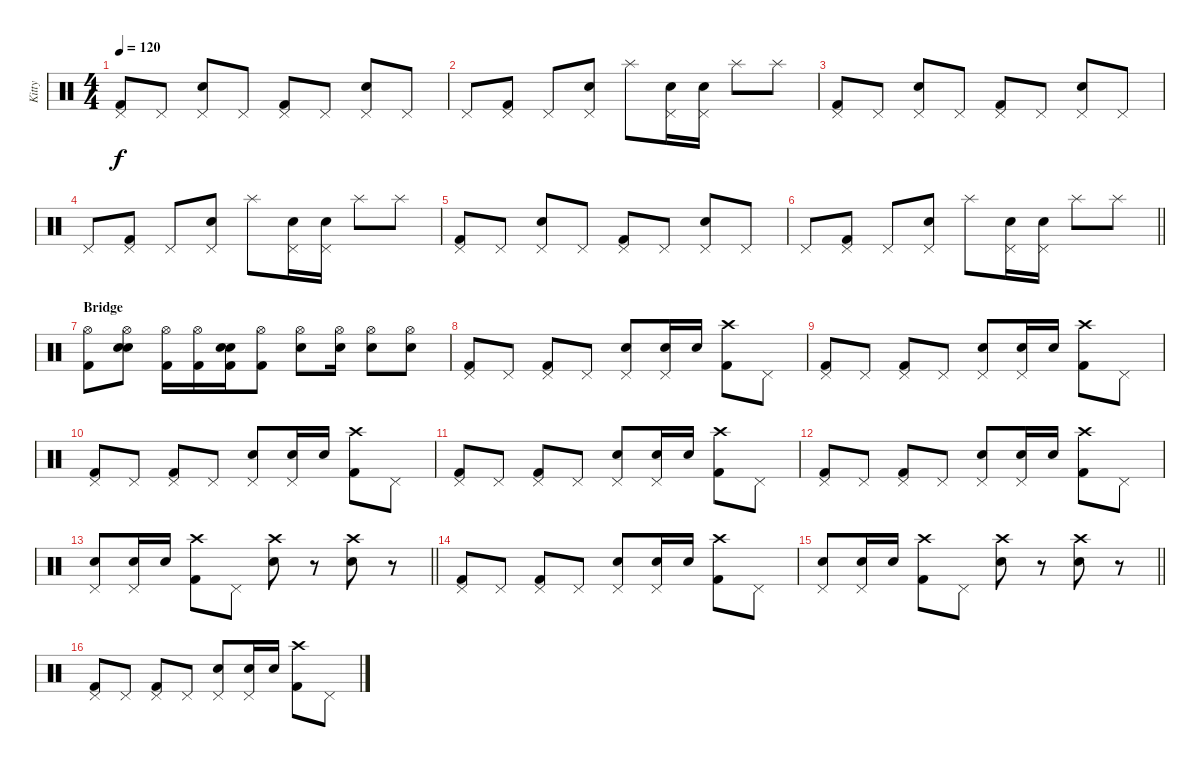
\track ("Kitty" "Kitty") {instrument percussion}
\staff {score}
\articulation defaults
\ts (4 4)
\tempo 120
\clef neutral
\ks c
("Pedal Hi-Hat (hit)" "Kick (hit) 2").8{dy f} "Pedal Hi-Hat (hit)".8 ("Pedal Hi-Hat (hit)" "Electric Snare (hit)").8 "Pedal Hi-Hat (hit)".8 ("Pedal Hi-Hat (hit)" "Kick (hit) 2").8 "Pedal Hi-Hat (hit)".8 ("Pedal Hi-Hat (hit)" "Electric Snare (hit)").8 "Pedal Hi-Hat (hit)".8 |
"Pedal Hi-Hat (hit)".8 ("Pedal Hi-Hat (hit)" "Kick (hit) 2").8 "Pedal Hi-Hat (hit)".8 ("Pedal Hi-Hat (hit)" "Electric Snare (hit)").8 "Splash (hit)".8 ("Pedal Hi-Hat (hit)" "Electric Snare (hit)").16 ("Pedal Hi-Hat (hit)" "Electric Snare (hit)").16 "Splash (hit)".8 "Splash (hit)".8 |
("Pedal Hi-Hat (hit)" "Kick (hit) 2").8 "Pedal Hi-Hat (hit)".8 ("Pedal Hi-Hat (hit)" "Electric Snare (hit)").8 "Pedal Hi-Hat (hit)".8 ("Pedal Hi-Hat (hit)" "Kick (hit) 2").8 "Pedal Hi-Hat (hit)".8 ("Pedal Hi-Hat (hit)" "Electric Snare (hit)").8 "Pedal Hi-Hat (hit)".8 |
"Pedal Hi-Hat (hit)".8 ("Pedal Hi-Hat (hit)" "Kick (hit) 2").8 "Pedal Hi-Hat (hit)".8 ("Pedal Hi-Hat (hit)" "Electric Snare (hit)").8 "Splash (hit)".8 ("Pedal Hi-Hat (hit)" "Electric Snare (hit)").16 ("Pedal Hi-Hat (hit)" "Electric Snare (hit)").16 "Splash (hit)".8 "Splash (hit)".8 |
("Pedal Hi-Hat (hit)" "Kick (hit) 2").8 "Pedal Hi-Hat (hit)".8 ("Pedal Hi-Hat (hit)" "Electric Snare (hit)").8 "Pedal Hi-Hat (hit)".8 ("Pedal Hi-Hat (hit)" "Kick (hit) 2").8 "Pedal Hi-Hat (hit)".8 ("Pedal Hi-Hat (hit)" "Electric Snare (hit)").8 "Pedal Hi-Hat (hit)".8 |
\barLineRight lightlight "Pedal Hi-Hat (hit)".8
("Pedal Hi-Hat (hit)" "Kick (hit) 2").8 "Pedal Hi-Hat (hit)".8 ("Pedal Hi-Hat (hit)" "Electric Snare (hit)").8 "Splash (hit)".8 ("Pedal Hi-Hat (hit)" "Electric Snare (hit)").16 ("Pedal Hi-Hat (hit)" "Electric Snare (hit)").16 "Splash (hit)".8 "Splash (hit)".8 |
\section ("" "Bridge")
("Hi-Hat (open)" "Kick (hit) 2").8 ("Hi-Hat (open)" "Electric Snare (hit)" "Electric Snare (hit)").8 ("Hi-Hat (open)" "Kick (hit) 2").16 ("Hi-Hat (open)" "Kick (hit) 2").16 ("Kick (hit) 2" "Electric Snare (hit)" "Electric Snare (hit)").16 ("Hi-Hat (open)" "Kick (hit) 2").8 ("Hi-Hat (open)" "Electric Snare (hit)").8 ("Hi-Hat (open)" "Electric Snare (hit)").16 ("Hi-Hat (open)" "Electric Snare (hit)").8 ("Hi-Hat (open)" "Electric Snare (hit)").8 |
("Pedal Hi-Hat (hit)" "Kick (hit) 2").8 "Pedal Hi-Hat (hit)".8 ("Pedal Hi-Hat (hit)" "Kick (hit) 2").8 "Pedal Hi-Hat (hit)".8 ("Pedal Hi-Hat (hit)" "Electric Snare (hit)").8 ("Pedal Hi-Hat (hit)" "Electric Snare (hit)").16 "Electric Snare (hit)".16 ("Crash high (hit)" "Kick (hit) 2").8 "Pedal Hi-Hat (hit)".8 |
("Pedal Hi-Hat (hit)" "Kick (hit) 2").8 "Pedal Hi-Hat (hit)".8 ("Pedal Hi-Hat (hit)" "Kick (hit) 2").8 "Pedal Hi-Hat (hit)".8 ("Pedal Hi-Hat (hit)" "Electric Snare (hit)").8 ("Pedal Hi-Hat (hit)" "Electric Snare (hit)").16 "Electric Snare (hit)".16 ("Crash high (hit)" "Kick (hit) 2").8 "Pedal Hi-Hat (hit)".8 |
("Pedal Hi-Hat (hit)" "Kick (hit) 2").8 "Pedal Hi-Hat (hit)".8 ("Pedal Hi-Hat (hit)" "Kick (hit) 2").8 "Pedal Hi-Hat (hit)".8 ("Pedal Hi-Hat (hit)" "Electric Snare (hit)").8 ("Pedal Hi-Hat (hit)" "Electric Snare (hit)").16 "Electric Snare (hit)".16 ("Crash high (hit)" "Kick (hit) 2").8 "Pedal Hi-Hat (hit)".8 |
("Pedal Hi-Hat (hit)" "Kick (hit) 2").8 "Pedal Hi-Hat (hit)".8 ("Pedal Hi-Hat (hit)" "Kick (hit) 2").8 "Pedal Hi-Hat (hit)".8 ("Pedal Hi-Hat (hit)" "Electric Snare (hit)").8 ("Pedal Hi-Hat (hit)" "Electric Snare (hit)").16 "Electric Snare (hit)".16 ("Crash high (hit)" "Kick (hit) 2").8 "Pedal Hi-Hat (hit)".8 |
("Pedal Hi-Hat (hit)" "Kick (hit) 2").8 "Pedal Hi-Hat (hit)".8 ("Pedal Hi-Hat (hit)" "Kick (hit) 2").8 "Pedal Hi-Hat (hit)".8 ("Pedal Hi-Hat (hit)" "Electric Snare (hit)").8 ("Pedal Hi-Hat (hit)" "Electric Snare (hit)").16 "Electric Snare (hit)".16 ("Crash high (hit)" "Kick (hit) 2").8 "Pedal Hi-Hat (hit)".8 |
\barLineRight lightlight
("Pedal Hi-Hat (hit)" "Electric Snare (hit)").8 ("Pedal Hi-Hat (hit)" "Electric Snare (hit)").16 "Electric Snare (hit)".16 ("Crash high (hit)" "Kick (hit) 2").8 "Pedal Hi-Hat (hit)".8 ("Crash high (hit)" "Electric Snare (hit)").8 r.8 ("Crash high (hit)" "Electric Snare (hit)").8 r.8 |
("Pedal Hi-Hat (hit)" "Kick (hit) 2").8 "Pedal Hi-Hat (hit)".8 ("Pedal Hi-Hat (hit)" "Kick (hit) 2").8 "Pedal Hi-Hat (hit)".8 ("Pedal Hi-Hat (hit)" "Electric Snare (hit)").8 ("Pedal Hi-Hat (hit)" "Electric Snare (hit)").16 "Electric Snare (hit)".16 ("Crash high (hit)" "Kick (hit) 2").8 "Pedal Hi-Hat (hit)".8 |
\barLineRight lightlight
("Pedal Hi-Hat (hit)" "Electric Snare (hit)").8 ("Pedal Hi-Hat (hit)" "Electric Snare (hit)").16 "Electric Snare (hit)".16 ("Crash high (hit)" "Kick (hit) 2").8 "Pedal Hi-Hat (hit)".8 ("Crash high (hit)" "Electric Snare (hit)").8 r.8 ("Crash high (hit)" "Electric Snare (hit)").8 r.8 |
("Pedal Hi-Hat (hit)" "Kick (hit) 2").8 "Pedal Hi-Hat (hit)".8 ("Pedal Hi-Hat (hit)" "Kick (hit) 2").8 "Pedal Hi-Hat (hit)".8 ("Pedal Hi-Hat (hit)" "Electric Snare (hit)").8 ("Pedal Hi-Hat (hit)" "Electric Snare (hit)").16 "Electric Snare (hit)".16 ("Crash high (hit)" "Kick (hit) 2").8 "Pedal Hi-Hat (hit)".8
